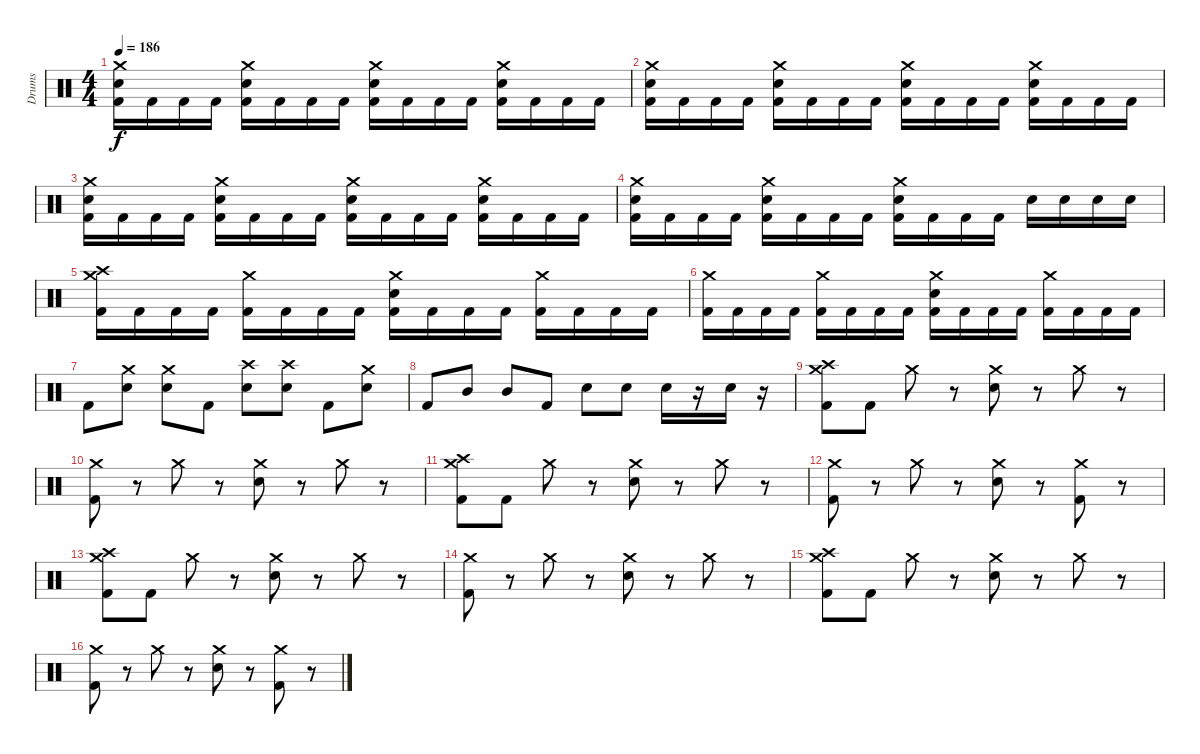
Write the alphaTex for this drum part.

\track ("Drums" "Drums") {instrument percussion}
\staff {score}
\articulation defaults
\ts (4 4)
\tempo 186
\clef neutral
\ks c
("Crash medium (hit)" "Snare (hit) 2" "Kick (hit) 2").16{dy f} "Kick (hit) 2".16 "Kick (hit) 2".16 "Kick (hit) 2".16 ("Crash medium (hit)" "Snare (hit) 2" "Kick (hit) 2").16 "Kick (hit) 2".16 "Kick (hit) 2".16 "Kick (hit) 2".16 ("Crash medium (hit)" "Snare (hit) 2" "Kick (hit) 2").16 "Kick (hit) 2".16 "Kick (hit) 2".16 "Kick (hit) 2".16 ("Crash medium (hit)" "Snare (hit) 2" "Kick (hit) 2").16 "Kick (hit) 2".16 "Kick (hit) 2".16 "Kick (hit) 2".16 |
("Crash medium (hit)" "Snare (hit) 2" "Kick (hit) 2").16 "Kick (hit) 2".16 "Kick (hit) 2".16 "Kick (hit) 2".16 ("Crash medium (hit)" "Snare (hit) 2" "Kick (hit) 2").16 "Kick (hit) 2".16 "Kick (hit) 2".16 "Kick (hit) 2".16 ("Crash medium (hit)" "Snare (hit) 2" "Kick (hit) 2").16 "Kick (hit) 2".16 "Kick (hit) 2".16 "Kick (hit) 2".16 ("Crash medium (hit)" "Snare (hit) 2" "Kick (hit) 2").16 "Kick (hit) 2".16 "Kick (hit) 2".16 "Kick (hit) 2".16 |
("Crash medium (hit)" "Snare (hit) 2" "Kick (hit) 2").16 "Kick (hit) 2".16 "Kick (hit) 2".16 "Kick (hit) 2".16 ("Crash medium (hit)" "Snare (hit) 2" "Kick (hit) 2").16 "Kick (hit) 2".16 "Kick (hit) 2".16 "Kick (hit) 2".16 ("Crash medium (hit)" "Snare (hit) 2" "Kick (hit) 2").16 "Kick (hit) 2".16 "Kick (hit) 2".16 "Kick (hit) 2".16 ("Crash medium (hit)" "Snare (hit) 2" "Kick (hit) 2").16 "Kick (hit) 2".16 "Kick (hit) 2".16 "Kick (hit) 2".16 |
("Crash medium (hit)" "Snare (hit) 2" "Kick (hit) 2").16 "Kick (hit) 2".16 "Kick (hit) 2".16 "Kick (hit) 2".16 ("Crash medium (hit)" "Snare (hit) 2" "Kick (hit) 2").16 "Kick (hit) 2".16 "Kick (hit) 2".16 "Kick (hit) 2".16 ("Crash medium (hit)" "Snare (hit) 2" "Kick (hit) 2").16 "Kick (hit) 2".16 "Kick (hit) 2".16 "Kick (hit) 2".16 "Snare (hit) 2".16 "Snare (hit) 2".16 "Snare (hit) 2".16 "Snare (hit) 2".16 |
("Crash high (hit)" "Crash medium (hit)" "Kick (hit) 2").16 "Kick (hit) 2".16 "Kick (hit) 2".16 "Kick (hit) 2".16 ("Crash medium (hit)" "Kick (hit) 2").16 "Kick (hit) 2".16 "Kick (hit) 2".16 "Kick (hit) 2".16 ("Crash medium (hit)" "Snare (hit) 2" "Kick (hit) 2").16 "Kick (hit) 2".16 "Kick (hit) 2".16 "Kick (hit) 2".16 ("Crash medium (hit)" "Kick (hit) 2").16 "Kick (hit) 2".16 "Kick (hit) 2".16 "Kick (hit) 2".16 |
("Crash medium (hit)" "Kick (hit) 2").16 "Kick (hit) 2".16 "Kick (hit) 2".16 "Kick (hit) 2".16 ("Crash medium (hit)" "Kick (hit) 2").16 "Kick (hit) 2".16 "Kick (hit) 2".16 "Kick (hit) 2".16 ("Crash medium (hit)" "Snare (hit) 2" "Kick (hit) 2").16 "Kick (hit) 2".16 "Kick (hit) 2".16 "Kick (hit) 2".16 ("Crash medium (hit)" "Kick (hit) 2").16 "Kick (hit) 2".16 "Kick (hit) 2".16 "Kick (hit) 2".16 |
"Kick (hit) 2".8 ("Crash medium (hit)" "Snare (hit) 2").8 ("Crash medium (hit)" "Snare (hit) 2").8 "Kick (hit) 2".8 ("Crash high (hit)" "Snare (hit) 2").8 ("Crash high (hit)" "Snare (hit) 2").8 "Kick (hit) 2".8 ("Crash medium (hit)" "Snare (hit) 2").8 |
"Kick (hit) 2".8 "Mid Tom (hit)".8 "Mid Tom (hit)".8 "Kick (hit) 2".8 "Snare (hit) 2".8 "Snare (hit) 2".8 "Snare (hit) 2".16 r.16 "Snare (hit) 2".16 r.16 |
("Crash high (hit)" "Crash medium (hit)" "Kick (hit) 2").8 "Kick (hit) 2".8 "Crash medium (hit)".8 r.8 ("Crash medium (hit)" "Snare (hit) 2").8 r.8 "Crash medium (hit)".8 r.8 |
("Crash medium (hit)" "Kick (hit) 2").8 r.8 "Crash medium (hit)".8 r.8 ("Crash medium (hit)" "Snare (hit) 2").8 r.8 "Crash medium (hit)".8 r.8 |
("Crash high (hit)" "Crash medium (hit)" "Kick (hit) 2").8 "Kick (hit) 2".8 "Crash medium (hit)".8 r.8 ("Crash medium (hit)" "Snare (hit) 2").8 r.8 "Crash medium (hit)".8 r.8 |
("Crash medium (hit)" "Kick (hit) 2").8 r.8 "Crash medium (hit)".8 r.8 ("Crash medium (hit)" "Snare (hit) 2").8 r.8 ("Crash medium (hit)" "Kick (hit) 2").8 r.8 |
("Crash high (hit)" "Crash medium (hit)" "Kick (hit) 2").8 "Kick (hit) 2".8 "Crash medium (hit)".8 r.8 ("Crash medium (hit)" "Snare (hit) 2").8 r.8 "Crash medium (hit)".8 r.8 |
("Crash medium (hit)" "Kick (hit) 2").8 r.8 "Crash medium (hit)".8 r.8 ("Crash medium (hit)" "Snare (hit) 2").8 r.8 "Crash medium (hit)".8 r.8 |
("Crash high (hit)" "Crash medium (hit)" "Kick (hit) 2").8 "Kick (hit) 2".8 "Crash medium (hit)".8 r.8 ("Crash medium (hit)" "Snare (hit) 2").8 r.8 "Crash medium (hit)".8 r.8 |
("Crash medium (hit)" "Kick (hit) 2").8 r.8 "Crash medium (hit)".8 r.8 ("Crash medium (hit)" "Snare (hit) 2").8 r.8 ("Crash medium (hit)" "Kick (hit) 2").8 r.8
